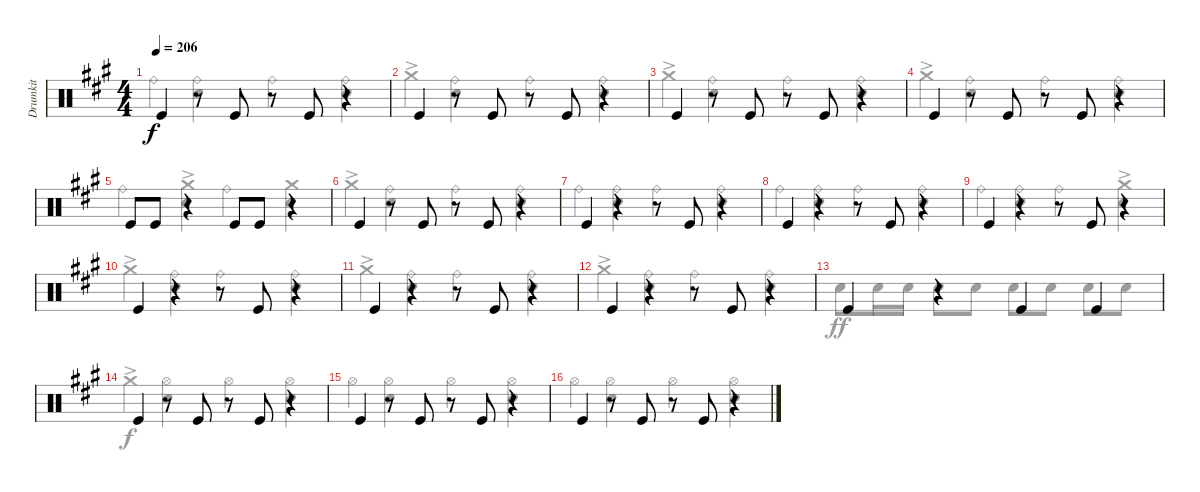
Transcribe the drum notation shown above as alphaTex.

\track ("Drumkit" "Drumkit") {instrument percussion}
\staff {score}
\articulation defaults
\voice
\ts (4 4)
\tempo 206
\clef neutral
\ks a "Kick (hit)".4{dy f}
r.8 "Kick (hit)".8 r.8 "Kick (hit)".8 r.4 |
"Kick (hit)".4 r.8 "Kick (hit)".8 r.8 "Kick (hit)".8 r.4 |
"Kick (hit)".4 r.8 "Kick (hit)".8 r.8 "Kick (hit)".8 r.4 |
"Kick (hit)".4 r.8 "Kick (hit)".8 r.8 "Kick (hit)".8 r.4 |
"Kick (hit)".8 "Kick (hit)".8 r.4 "Kick (hit)".8 "Kick (hit)".8 r.4 |
"Kick (hit)".4 r.8 "Kick (hit)".8 r.8 "Kick (hit)".8 r.4 |
"Kick (hit)".4 r.4 r.8 "Kick (hit)".8 r.4 |
"Kick (hit)".4 r.4 r.8 "Kick (hit)".8 r.4 |
"Kick (hit)".4 r.4 r.8 "Kick (hit)".8 r.4 |
"Kick (hit)".4 r.4 r.8 "Kick (hit)".8 r.4 |
"Kick (hit)".4 r.4 r.8 "Kick (hit)".8 r.4 |
"Kick (hit)".4 r.4 r.8 "Kick (hit)".8 r.4 |
"Kick (hit)".4 r.4 "Kick (hit)".4 "Kick (hit)".4 |
\section ("" "")
"Kick (hit)".4 r.8 "Kick (hit)".8 r.8 "Kick (hit)".8 r.4 |
"Kick (hit)".4 r.8 "Kick (hit)".8 r.8 "Kick (hit)".8 r.4 |
"Kick (hit)".4 r.8 "Kick (hit)".8 r.8 "Kick (hit)".8 r.4
\voice
\clef neutral
\ottava regular
\simile none
\ks a "Ride (bell)".4{dy f}
("Snare (hit) 2" "Ride (bell)").4 "Ride (bell)".4 ("Ride (bell)" "Snare (hit) 2").4 |
"Crash medium (hit)"{ac}.4 ("Snare (hit) 2" "Ride (bell)").4 "Ride (bell)".4 ("Ride (bell)" "Snare (hit) 2").4 |
"Crash medium (hit)"{ac}.4 ("Snare (hit) 2" "Ride (bell)").4 "Ride (bell)".4 ("Ride (bell)" "Snare (hit) 2").4 |
"Crash medium (hit)"{ac}.4 ("Snare (hit) 2" "Ride (bell)").4 "Ride (bell)".4 ("Ride (bell)" "Snare (hit) 2").4 |
"Ride (bell)".4 ("Crash medium (hit)"{ac} "Snare (hit) 2").4 "Ride (bell)".4 ("Crash medium (hit)" "Snare (hit) 2").4 |
"Crash medium (hit)"{ac}.4 ("Snare (hit) 2" "Ride (bell)").4 "Ride (bell)".4 ("Ride (bell)" "Snare (hit) 2").4 |
"Ride (bell)".4 ("Snare (hit) 2" "Ride (bell)").4 "Ride (bell)".4 ("Ride (bell)" "Snare (hit) 2").4 |
"Ride (bell)".4 ("Snare (hit) 2" "Ride (bell)").4 "Ride (bell)".4 ("Ride (bell)" "Snare (hit) 2").4 |
"Ride (bell)".4 ("Snare (hit) 2" "Ride (bell)").4 "Ride (bell)".4 ("Snare (hit) 2" "Crash medium (hit)"{ac}).4 |
"Crash medium (hit)"{ac}.4 ("Snare (hit) 2" "Ride (bell)").4 "Ride (bell)".4 ("Ride (bell)" "Snare (hit) 2").4 |
"Crash medium (hit)"{ac}.4 ("Snare (hit) 2" "Ride (bell)").4 "Ride (bell)".4 ("Ride (bell)" "Snare (hit) 2").4 |
"Crash medium (hit)"{ac}.4 ("Snare (hit) 2" "Ride (bell)").4 "Ride (bell)".4 ("Ride (bell)" "Snare (hit) 2").4 |
"Snare (hit) 2".8{dy ff} "Snare (hit) 2".16 "Snare (hit) 2".16 "Snare (hit) 2".8 "Snare (hit) 2".8 "Snare (hit) 2".8 "Snare (hit) 2".8 "Snare (hit) 2".8 "Snare (hit) 2".8 |
"Crash medium (hit)"{ac}.4{dy f} ("Hi-Hat (open)" "Snare (hit) 2").4 "Hi-Hat (open)".4 ("Hi-Hat (open)" "Snare (hit) 2").4 |
"Hi-Hat (open)".4 ("Hi-Hat (open)" "Snare (hit) 2").4 "Hi-Hat (open)".4 ("Hi-Hat (open)" "Snare (hit) 2").4 |
"Hi-Hat (open)".4 ("Hi-Hat (open)" "Snare (hit) 2").4 "Hi-Hat (open)".4 ("Hi-Hat (open)" "Snare (hit) 2").4
